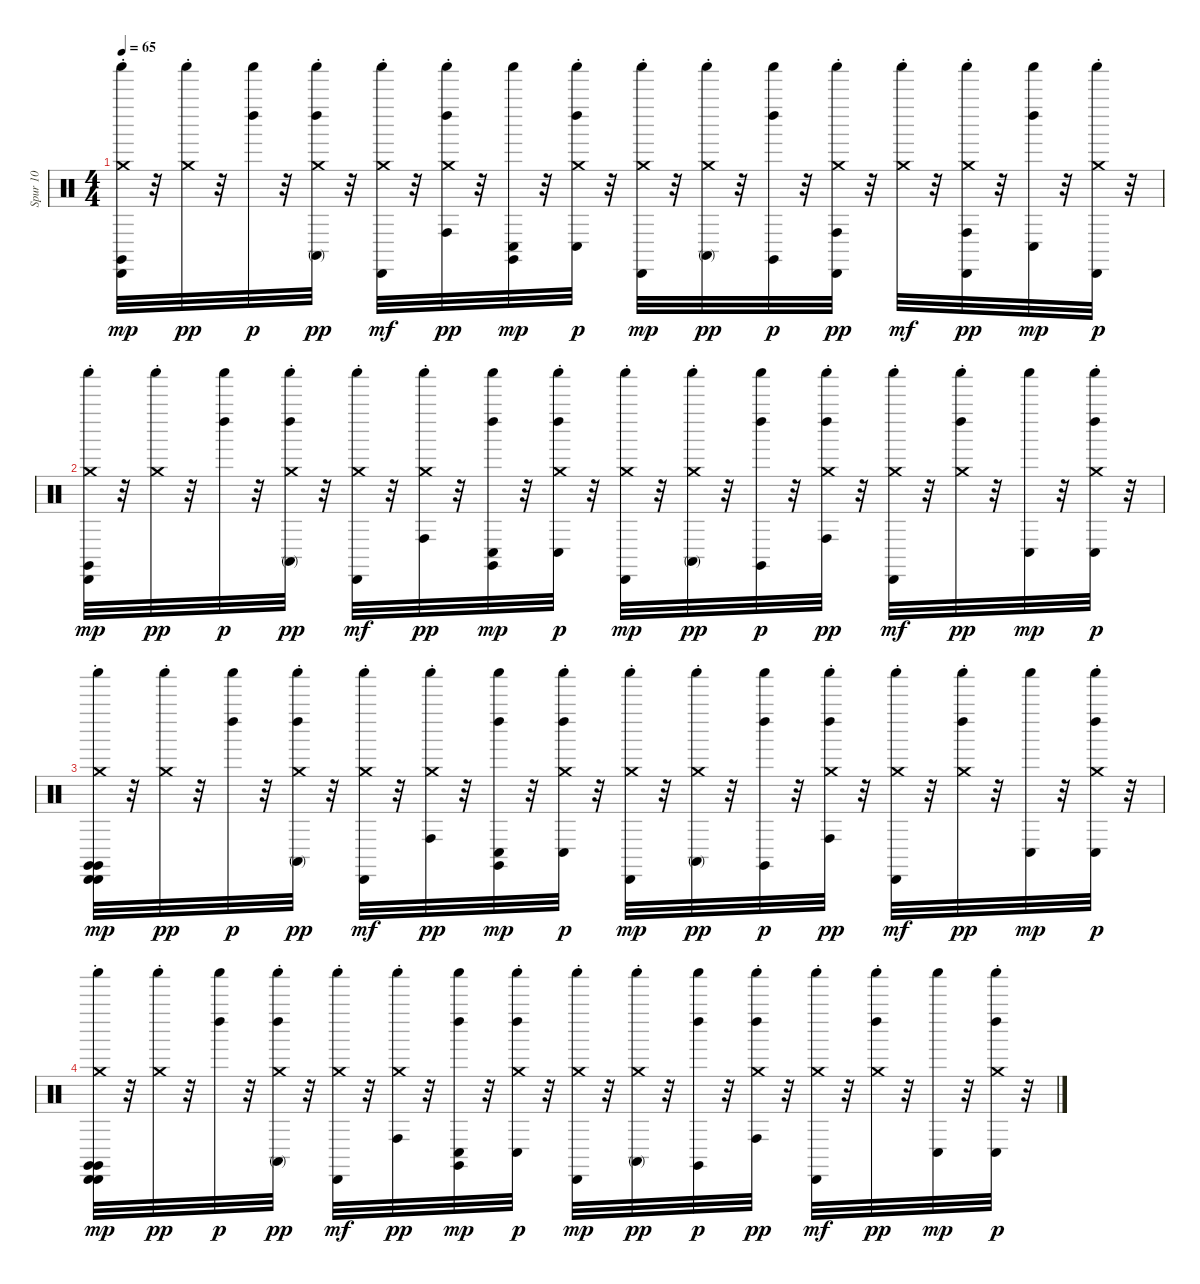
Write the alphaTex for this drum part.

\track ("Spur 10" "Spur 10") {instrument percussion}
\staff {score}
\articulation defaults
\ts (4 4)
\tempo 65
\clef neutral
\ks c
("Claves (hit)" "Cabasa (hit)" "Shaker (hit)" "Crash medium (choke)").32{dy mp} r.32 ("Shaker (hit)" "Crash medium (choke)").32{dy pp} r.32 ("Left Maraca (hit)" "Shaker (hit)").32{dy p} r.32 ("Conga high (mute)" "Left Maraca (hit)" "Shaker (hit)" "Crash medium (choke)").32{dy pp} r.32 ("Cabasa (hit)" "Shaker (hit)" "Crash medium (choke)").32{dy mf} r.32 ("Conga high (hit)" "Left Maraca (hit)" "Shaker (hit)" "Crash medium (choke)").32{dy pp} r.32 ("Claves (hit)" "Conga low (hit)" "Shaker (hit)").32{dy mp} r.32 ("Conga low (hit)" "Left Maraca (hit)" "Shaker (hit)" "Crash medium (choke)").32{dy p} r.32 ("Cabasa (hit)" "Shaker (hit)" "Crash medium (choke)").32{dy mp} r.32 ("Conga high (mute)" "Shaker (hit)" "Crash medium (choke)").32{dy pp} r.32 ("Claves (hit)" "Left Maraca (hit)" "Shaker (hit)").32{dy p} r.32 ("Conga high (hit)" "Cabasa (hit)" "Shaker (hit)" "Crash medium (choke)").32{dy pp} r.32 ("Shaker (hit)" "Crash medium (choke)").32{dy mf} r.32 ("Conga high (hit)" "Cabasa (hit)" "Shaker (hit)" "Crash medium (choke)").32{dy pp} r.32 ("Conga low (hit)" "Left Maraca (hit)" "Shaker (hit)").32{dy mp} r.32 ("Cabasa (hit)" "Shaker (hit)" "Crash medium (choke)").32{dy p} r.32 |
("Claves (hit)" "Cabasa (hit)" "Shaker (hit)" "Crash medium (choke)").32{dy mp} r.32 ("Shaker (hit)" "Crash medium (choke)").32{dy pp} r.32 ("Left Maraca (hit)" "Shaker (hit)").32{dy p} r.32 ("Conga high (mute)" "Left Maraca (hit)" "Shaker (hit)" "Crash medium (choke)").32{dy pp} r.32 ("Cabasa (hit)" "Shaker (hit)" "Crash medium (choke)").32{dy mf} r.32 ("Conga high (hit)" "Shaker (hit)" "Crash medium (choke)").32{dy pp} r.32 ("Claves (hit)" "Conga low (hit)" "Left Maraca (hit)" "Shaker (hit)").32{dy mp} r.32 ("Conga low (hit)" "Left Maraca (hit)" "Shaker (hit)" "Crash medium (choke)").32{dy p} r.32 ("Cabasa (hit)" "Shaker (hit)" "Crash medium (choke)").32{dy mp} r.32 ("Conga high (mute)" "Shaker (hit)" "Crash medium (choke)").32{dy pp} r.32 ("Claves (hit)" "Left Maraca (hit)" "Shaker (hit)").32{dy p} r.32 ("Conga high (hit)" "Left Maraca (hit)" "Shaker (hit)" "Crash medium (choke)").32{dy pp} r.32 ("Cabasa (hit)" "Shaker (hit)" "Crash medium (choke)").32{dy mf} r.32 ("Left Maraca (hit)" "Shaker (hit)" "Crash medium (choke)").32{dy pp} r.32 ("Conga low (hit)" "Shaker (hit)").32{dy mp} r.32 ("Conga low (hit)" "Left Maraca (hit)" "Shaker (hit)" "Crash medium (choke)").32{dy p} r.32 |
("Claves (hit)" "Cabasa (hit)" "Claves (hit)" "Cabasa (hit)" "Shaker (hit)" "Crash medium (choke)").32{dy mp} r.32 ("Shaker (hit)" "Crash medium (choke)").32{dy pp} r.32 ("Left Maraca (hit)" "Shaker (hit)").32{dy p} r.32 ("Conga high (mute)" "Left Maraca (hit)" "Shaker (hit)" "Crash medium (choke)").32{dy pp} r.32 ("Cabasa (hit)" "Shaker (hit)" "Crash medium (choke)").32{dy mf} r.32 ("Conga high (hit)" "Shaker (hit)" "Crash medium (choke)").32{dy pp} r.32 ("Claves (hit)" "Conga low (hit)" "Left Maraca (hit)" "Shaker (hit)").32{dy mp} r.32 ("Conga low (hit)" "Left Maraca (hit)" "Shaker (hit)" "Crash medium (choke)").32{dy p} r.32 ("Cabasa (hit)" "Shaker (hit)" "Crash medium (choke)").32{dy mp} r.32 ("Conga high (mute)" "Shaker (hit)" "Crash medium (choke)").32{dy pp} r.32 ("Claves (hit)" "Left Maraca (hit)" "Shaker (hit)").32{dy p} r.32 ("Conga high (hit)" "Left Maraca (hit)" "Shaker (hit)" "Crash medium (choke)").32{dy pp} r.32 ("Cabasa (hit)" "Shaker (hit)" "Crash medium (choke)").32{dy mf} r.32 ("Left Maraca (hit)" "Shaker (hit)" "Crash medium (choke)").32{dy pp} r.32 ("Conga low (hit)" "Shaker (hit)").32{dy mp} r.32 ("Conga low (hit)" "Left Maraca (hit)" "Shaker (hit)" "Crash medium (choke)").32{dy p} r.32 |
("Claves (hit)" "Cabasa (hit)" "Claves (hit)" "Cabasa (hit)" "Shaker (hit)" "Crash medium (choke)").32{dy mp} r.32 ("Shaker (hit)" "Crash medium (choke)").32{dy pp} r.32 ("Left Maraca (hit)" "Shaker (hit)").32{dy p} r.32 ("Conga high (mute)" "Left Maraca (hit)" "Shaker (hit)" "Crash medium (choke)").32{dy pp} r.32 ("Cabasa (hit)" "Shaker (hit)" "Crash medium (choke)").32{dy mf} r.32 ("Conga high (hit)" "Shaker (hit)" "Crash medium (choke)").32{dy pp} r.32 ("Claves (hit)" "Conga low (hit)" "Left Maraca (hit)" "Shaker (hit)").32{dy mp} r.32 ("Conga low (hit)" "Left Maraca (hit)" "Shaker (hit)" "Crash medium (choke)").32{dy p} r.32 ("Cabasa (hit)" "Shaker (hit)" "Crash medium (choke)").32{dy mp} r.32 ("Conga high (mute)" "Shaker (hit)" "Crash medium (choke)").32{dy pp} r.32 ("Claves (hit)" "Left Maraca (hit)" "Shaker (hit)").32{dy p} r.32 ("Conga high (hit)" "Left Maraca (hit)" "Shaker (hit)" "Crash medium (choke)").32{dy pp} r.32 ("Cabasa (hit)" "Shaker (hit)" "Crash medium (choke)").32{dy mf} r.32 ("Left Maraca (hit)" "Shaker (hit)" "Crash medium (choke)").32{dy pp} r.32 ("Conga low (hit)" "Shaker (hit)").32{dy mp} r.32 ("Conga low (hit)" "Left Maraca (hit)" "Shaker (hit)" "Crash medium (choke)").32{dy p} r.32
